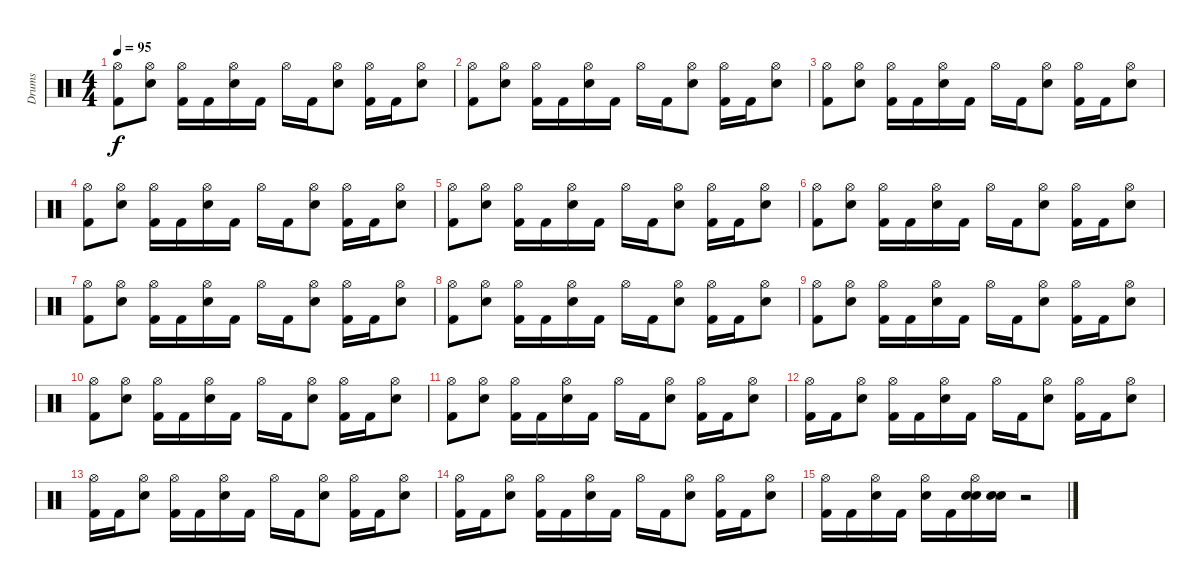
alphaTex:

\track ("Drums" "Drums") {instrument percussion}
\staff {score}
\articulation defaults
\ts (4 4)
\tempo 95
\clef neutral
\ks c
("Hi-Hat (open)" "Kick (hit) 2").8{dy f} ("Hi-Hat (open)" "Snare (hit) 2").8 ("Hi-Hat (open)" "Kick (hit) 2").16 "Kick (hit) 2".16 ("Hi-Hat (open)" "Snare (hit) 2").16 "Kick (hit) 2".16 "Hi-Hat (open)".16 "Kick (hit) 2".16 ("Hi-Hat (open)" "Snare (hit) 2").8 ("Hi-Hat (open)" "Kick (hit) 2").16 "Kick (hit) 2".16 ("Hi-Hat (open)" "Snare (hit) 2").8 |
("Hi-Hat (open)" "Kick (hit) 2").8 ("Hi-Hat (open)" "Snare (hit) 2").8 ("Hi-Hat (open)" "Kick (hit) 2").16 "Kick (hit) 2".16 ("Hi-Hat (open)" "Snare (hit) 2").16 "Kick (hit) 2".16 "Hi-Hat (open)".16 "Kick (hit) 2".16 ("Hi-Hat (open)" "Snare (hit) 2").8 ("Hi-Hat (open)" "Kick (hit) 2").16 "Kick (hit) 2".16 ("Hi-Hat (open)" "Snare (hit) 2").8 |
("Hi-Hat (open)" "Kick (hit) 2").8 ("Hi-Hat (open)" "Snare (hit) 2").8 ("Hi-Hat (open)" "Kick (hit) 2").16 "Kick (hit) 2".16 ("Hi-Hat (open)" "Snare (hit) 2").16 "Kick (hit) 2".16 "Hi-Hat (open)".16 "Kick (hit) 2".16 ("Hi-Hat (open)" "Snare (hit) 2").8 ("Hi-Hat (open)" "Kick (hit) 2").16 "Kick (hit) 2".16 ("Hi-Hat (open)" "Snare (hit) 2").8 |
("Hi-Hat (open)" "Kick (hit) 2").8 ("Hi-Hat (open)" "Snare (hit) 2").8 ("Hi-Hat (open)" "Kick (hit) 2").16 "Kick (hit) 2".16 ("Hi-Hat (open)" "Snare (hit) 2").16 "Kick (hit) 2".16 "Hi-Hat (open)".16 "Kick (hit) 2".16 ("Hi-Hat (open)" "Snare (hit) 2").8 ("Hi-Hat (open)" "Kick (hit) 2").16 "Kick (hit) 2".16 ("Hi-Hat (open)" "Snare (hit) 2").8 |
("Hi-Hat (open)" "Kick (hit) 2").8 ("Hi-Hat (open)" "Snare (hit) 2").8 ("Hi-Hat (open)" "Kick (hit) 2").16 "Kick (hit) 2".16 ("Hi-Hat (open)" "Snare (hit) 2").16 "Kick (hit) 2".16 "Hi-Hat (open)".16 "Kick (hit) 2".16 ("Hi-Hat (open)" "Snare (hit) 2").8 ("Hi-Hat (open)" "Kick (hit) 2").16 "Kick (hit) 2".16 ("Hi-Hat (open)" "Snare (hit) 2").8 |
("Hi-Hat (open)" "Kick (hit) 2").8 ("Hi-Hat (open)" "Snare (hit) 2").8 ("Hi-Hat (open)" "Kick (hit) 2").16 "Kick (hit) 2".16 ("Hi-Hat (open)" "Snare (hit) 2").16 "Kick (hit) 2".16 "Hi-Hat (open)".16 "Kick (hit) 2".16 ("Hi-Hat (open)" "Snare (hit) 2").8 ("Hi-Hat (open)" "Kick (hit) 2").16 "Kick (hit) 2".16 ("Hi-Hat (open)" "Snare (hit) 2").8 |
("Hi-Hat (open)" "Kick (hit) 2").8 ("Hi-Hat (open)" "Snare (hit) 2").8 ("Hi-Hat (open)" "Kick (hit) 2").16 "Kick (hit) 2".16 ("Hi-Hat (open)" "Snare (hit) 2").16 "Kick (hit) 2".16 "Hi-Hat (open)".16 "Kick (hit) 2".16 ("Hi-Hat (open)" "Snare (hit) 2").8 ("Hi-Hat (open)" "Kick (hit) 2").16 "Kick (hit) 2".16 ("Hi-Hat (open)" "Snare (hit) 2").8 |
("Hi-Hat (open)" "Kick (hit) 2").8 ("Hi-Hat (open)" "Snare (hit) 2").8 ("Hi-Hat (open)" "Kick (hit) 2").16 "Kick (hit) 2".16 ("Hi-Hat (open)" "Snare (hit) 2").16 "Kick (hit) 2".16 "Hi-Hat (open)".16 "Kick (hit) 2".16 ("Hi-Hat (open)" "Snare (hit) 2").8 ("Hi-Hat (open)" "Kick (hit) 2").16 "Kick (hit) 2".16 ("Hi-Hat (open)" "Snare (hit) 2").8 |
("Hi-Hat (open)" "Kick (hit) 2").8 ("Hi-Hat (open)" "Snare (hit) 2").8 ("Hi-Hat (open)" "Kick (hit) 2").16 "Kick (hit) 2".16 ("Hi-Hat (open)" "Snare (hit) 2").16 "Kick (hit) 2".16 "Hi-Hat (open)".16 "Kick (hit) 2".16 ("Hi-Hat (open)" "Snare (hit) 2").8 ("Hi-Hat (open)" "Kick (hit) 2").16 "Kick (hit) 2".16 ("Hi-Hat (open)" "Snare (hit) 2").8 |
("Hi-Hat (open)" "Kick (hit) 2").8 ("Hi-Hat (open)" "Snare (hit) 2").8 ("Hi-Hat (open)" "Kick (hit) 2").16 "Kick (hit) 2".16 ("Hi-Hat (open)" "Snare (hit) 2").16 "Kick (hit) 2".16 "Hi-Hat (open)".16 "Kick (hit) 2".16 ("Hi-Hat (open)" "Snare (hit) 2").8 ("Hi-Hat (open)" "Kick (hit) 2").16 "Kick (hit) 2".16 ("Hi-Hat (open)" "Snare (hit) 2").8 |
("Hi-Hat (open)" "Kick (hit) 2").8 ("Hi-Hat (open)" "Snare (hit) 2").8 ("Hi-Hat (open)" "Kick (hit) 2").16 "Kick (hit) 2".16 ("Hi-Hat (open)" "Snare (hit) 2").16 "Kick (hit) 2".16 "Hi-Hat (open)".16 "Kick (hit) 2".16 ("Hi-Hat (open)" "Snare (hit) 2").8 ("Hi-Hat (open)" "Kick (hit) 2").16 "Kick (hit) 2".16 ("Hi-Hat (open)" "Snare (hit) 2").8 |
("Kick (hit) 2" "Hi-Hat (open)").16 "Kick (hit) 2".16 ("Snare (hit) 2" "Hi-Hat (open)").8 ("Kick (hit) 2" "Hi-Hat (open)").16 "Kick (hit) 2".16 ("Snare (hit) 2" "Hi-Hat (open)").16 "Kick (hit) 2".16 "Hi-Hat (open)".16 "Kick (hit) 2".16 ("Snare (hit) 2" "Hi-Hat (open)").8 ("Kick (hit) 2" "Hi-Hat (open)").16 "Kick (hit) 2".16 ("Snare (hit) 2" "Hi-Hat (open)").8 |
("Kick (hit) 2" "Hi-Hat (open)").16 "Kick (hit) 2".16 ("Snare (hit) 2" "Hi-Hat (open)").8 ("Kick (hit) 2" "Hi-Hat (open)").16 "Kick (hit) 2".16 ("Snare (hit) 2" "Hi-Hat (open)").16 "Kick (hit) 2".16 "Hi-Hat (open)".16 "Kick (hit) 2".16 ("Snare (hit) 2" "Hi-Hat (open)").8 ("Kick (hit) 2" "Hi-Hat (open)").16 "Kick (hit) 2".16 ("Snare (hit) 2" "Hi-Hat (open)").8 |
("Kick (hit) 2" "Hi-Hat (open)").16 "Kick (hit) 2".16 ("Snare (hit) 2" "Hi-Hat (open)").8 ("Kick (hit) 2" "Hi-Hat (open)").16 "Kick (hit) 2".16 ("Snare (hit) 2" "Hi-Hat (open)").16 "Kick (hit) 2".16 "Hi-Hat (open)".16 "Kick (hit) 2".16 ("Snare (hit) 2" "Hi-Hat (open)").8 ("Kick (hit) 2" "Hi-Hat (open)").16 "Kick (hit) 2".16 ("Snare (hit) 2" "Hi-Hat (open)").8 |
("Kick (hit) 2" "Hi-Hat (open)").16 "Kick (hit) 2".16 ("Snare (hit) 2" "Hi-Hat (open)").16 "Kick (hit) 2".16 ("Snare (hit) 2" "Hi-Hat (open)").16 "Kick (hit) 2".16 ("Snare (hit) 2" "Snare (hit) 2" "Hi-Hat (open)").16{bd 60} ("Snare (hit) 2" "Snare (hit) 2").16{bd 60} r.2
